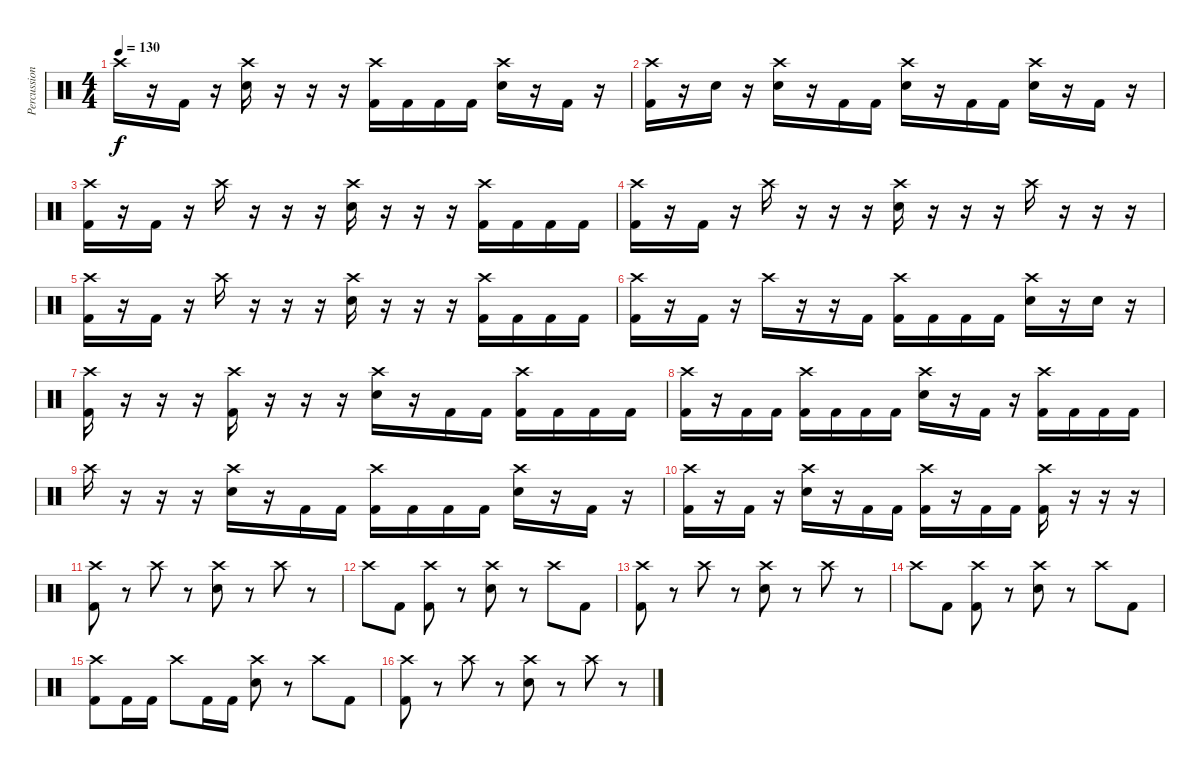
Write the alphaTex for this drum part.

\track ("Percussion" "Percussion") {instrument percussion}
\staff {score}
\articulation defaults
\ts (4 4)
\tempo 130
\clef neutral
\ks c "Crash high (hit)".16{dy f}
r.16 "Kick (hit) 2".16 r.16 ("Crash high (hit)" "Electric Snare (hit)").16 r.16 r.16 r.16 ("Crash high (hit)" "Kick (hit) 2").16 "Kick (hit) 2".16 "Kick (hit) 2".16 "Kick (hit) 2".16 ("Crash high (hit)" "Electric Snare (hit)").16 r.16 "Kick (hit) 2".16 r.16 |
("Crash high (hit)" "Kick (hit) 2").16 r.16 "Electric Snare (hit)".16 r.16 ("Crash high (hit)" "Electric Snare (hit)").16 r.16 "Kick (hit) 2".16 "Kick (hit) 2".16 ("Crash high (hit)" "Electric Snare (hit)").16 r.16 "Kick (hit) 2".16 "Kick (hit) 2".16 ("Crash high (hit)" "Electric Snare (hit)").16 r.16 "Kick (hit) 2".16 r.16 |
("Crash high (hit)" "Kick (hit) 2").16 r.16 "Kick (hit) 2".16 r.16 "Crash high (hit)".16 r.16 r.16 r.16 ("Crash high (hit)" "Electric Snare (hit)").16 r.16 r.16 r.16 ("Crash high (hit)" "Kick (hit) 2").16 "Kick (hit) 2".16 "Kick (hit) 2".16 "Kick (hit) 2".16 |
("Crash high (hit)" "Kick (hit) 2").16 r.16 "Kick (hit) 2".16 r.16 "Crash high (hit)".16 r.16 r.16 r.16 ("Crash high (hit)" "Electric Snare (hit)").16 r.16 r.16 r.16 "Crash high (hit)".16 r.16 r.16 r.16 |
("Crash high (hit)" "Kick (hit) 2").16 r.16 "Kick (hit) 2".16 r.16 "Crash high (hit)".16 r.16 r.16 r.16 ("Crash high (hit)" "Electric Snare (hit)").16 r.16 r.16 r.16 ("Crash high (hit)" "Kick (hit) 2").16 "Kick (hit) 2".16 "Kick (hit) 2".16 "Kick (hit) 2".16 |
("Crash high (hit)" "Kick (hit) 2").16 r.16 "Kick (hit) 2".16 r.16 "Crash high (hit)".16 r.16 r.16 "Kick (hit) 2".16 ("Crash high (hit)" "Kick (hit) 2").16 "Kick (hit) 2".16 "Kick (hit) 2".16 "Kick (hit) 2".16 ("Crash high (hit)" "Electric Snare (hit)").16 r.16 "Electric Snare (hit)".16 r.16 |
("Crash high (hit)" "Kick (hit) 2").16 r.16 r.16 r.16 ("Crash high (hit)" "Kick (hit) 2").16 r.16 r.16 r.16 ("Crash high (hit)" "Electric Snare (hit)").16 r.16 "Kick (hit) 2".16 "Kick (hit) 2".16 ("Crash high (hit)" "Kick (hit) 2").16 "Kick (hit) 2".16 "Kick (hit) 2".16 "Kick (hit) 2".16 |
("Crash high (hit)" "Kick (hit) 2").16 r.16 "Kick (hit) 2".16 "Kick (hit) 2".16 ("Crash high (hit)" "Kick (hit) 2").16 "Kick (hit) 2".16 "Kick (hit) 2".16 "Kick (hit) 2".16 ("Crash high (hit)" "Electric Snare (hit)").16 r.16 "Kick (hit) 2".16 r.16 ("Crash high (hit)" "Kick (hit) 2").16 "Kick (hit) 2".16 "Kick (hit) 2".16 "Kick (hit) 2".16 |
"Crash high (hit)".16 r.16 r.16 r.16 ("Crash high (hit)" "Electric Snare (hit)").16 r.16 "Kick (hit) 2".16 "Kick (hit) 2".16 ("Crash high (hit)" "Kick (hit) 2").16 "Kick (hit) 2".16 "Kick (hit) 2".16 "Kick (hit) 2".16 ("Crash high (hit)" "Electric Snare (hit)").16 r.16 "Kick (hit) 2".16 r.16 |
("Crash high (hit)" "Kick (hit) 2").16 r.16 "Kick (hit) 2".16 r.16 ("Crash high (hit)" "Electric Snare (hit)").16 r.16 "Kick (hit) 2".16 "Kick (hit) 2".16 ("Crash high (hit)" "Kick (hit) 2").16 r.16 "Kick (hit) 2".16 "Kick (hit) 2".16 ("Crash high (hit)" "Kick (hit) 2").16 r.16 r.16 r.16 |
("Crash high (hit)" "Kick (hit) 2").8 r.8 "Crash high (hit)".8 r.8 ("Crash high (hit)" "Electric Snare (hit)").8 r.8 "Crash high (hit)".8 r.8 |
"Crash high (hit)".8 "Kick (hit) 2".8 ("Crash high (hit)" "Kick (hit) 2").8 r.8 ("Crash high (hit)" "Electric Snare (hit)").8 r.8 "Crash high (hit)".8 "Kick (hit) 2".8 |
("Crash high (hit)" "Kick (hit) 2").8 r.8 "Crash high (hit)".8 r.8 ("Crash high (hit)" "Electric Snare (hit)").8 r.8 "Crash high (hit)".8 r.8 |
"Crash high (hit)".8 "Kick (hit) 2".8 ("Crash high (hit)" "Kick (hit) 2").8 r.8 ("Crash high (hit)" "Electric Snare (hit)").8 r.8 "Crash high (hit)".8 "Kick (hit) 2".8 |
("Crash high (hit)" "Kick (hit) 2").8 "Kick (hit) 2".16 "Kick (hit) 2".16 "Crash high (hit)".8 "Kick (hit) 2".16 "Kick (hit) 2".16 ("Crash high (hit)" "Electric Snare (hit)").8 r.8 "Crash high (hit)".8 "Kick (hit) 2".8 |
("Crash high (hit)" "Kick (hit) 2").8 r.8 "Crash high (hit)".8 r.8 ("Crash high (hit)" "Electric Snare (hit)").8 r.8 "Crash high (hit)".8 r.8
